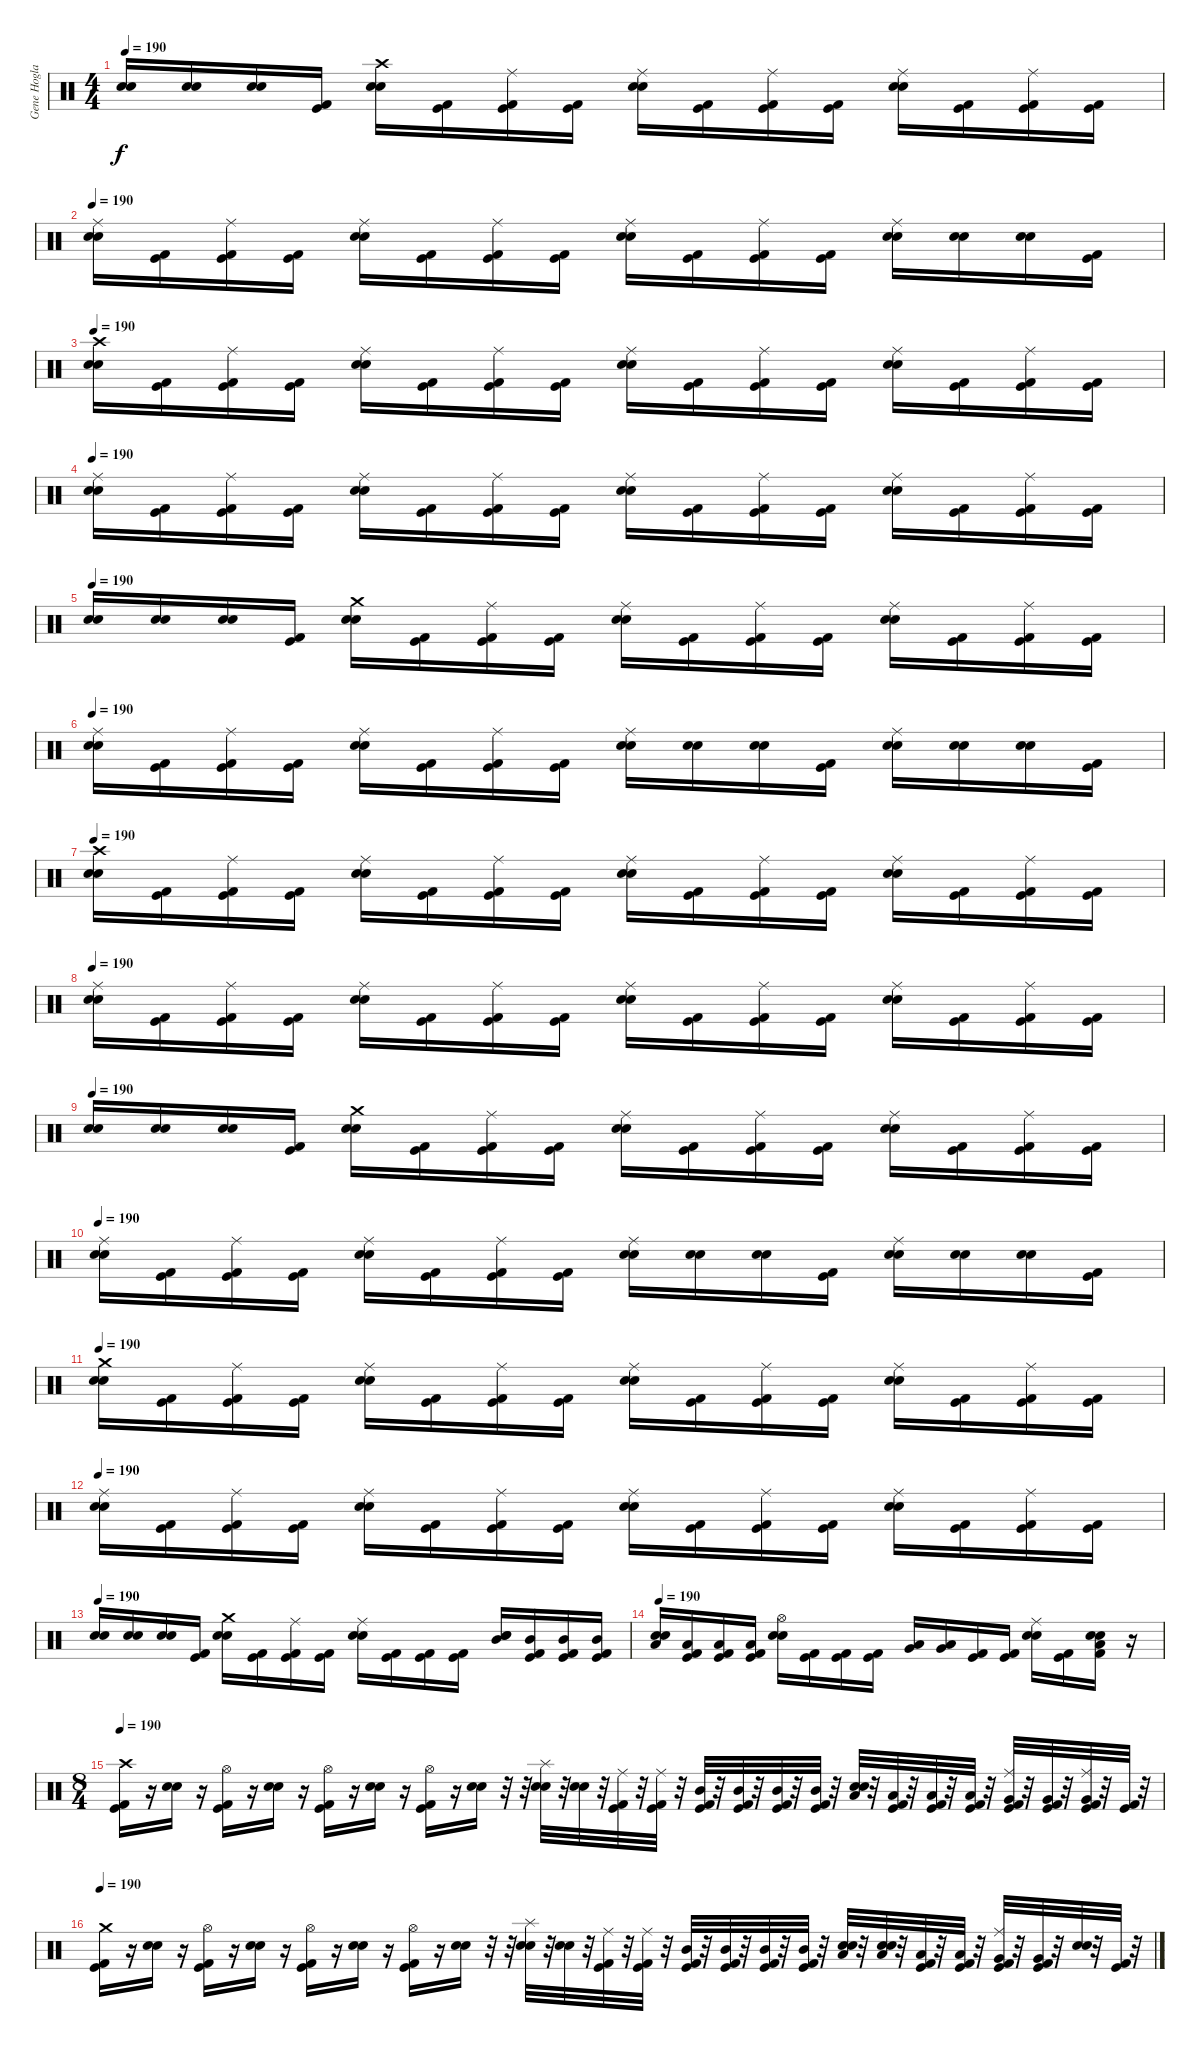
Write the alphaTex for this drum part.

\track ("Gene Hoglan" "Gene Hogla") {instrument percussion}
\staff {score}
\articulation defaults
\ts (4 4)
\tempo 190
\clef neutral
\ks c
("Electric Snare (hit)" "Snare (hit) 2").16{dy f} ("Electric Snare (hit)" "Snare (hit) 2").16 ("Electric Snare (hit)" "Snare (hit) 2").16 ("Kick (hit) 2" "Kick (hit)").16 ("Crash high (hit)" "Snare (hit) 2" "Electric Snare (hit)").16 ("Kick (hit) 2" "Kick (hit)").16 ("Ride (middle)" "Kick (hit) 2" "Kick (hit)").16 ("Kick (hit) 2" "Kick (hit)").16 ("Ride (middle)" "Snare (hit) 2" "Electric Snare (hit)").16 ("Kick (hit) 2" "Kick (hit)").16 ("Ride (middle)" "Kick (hit) 2" "Kick (hit)").16 ("Kick (hit) 2" "Kick (hit)").16 ("Ride (middle)" "Snare (hit) 2" "Electric Snare (hit)").16 ("Kick (hit) 2" "Kick (hit)").16 ("Ride (middle)" "Kick (hit) 2" "Kick (hit)").16 ("Kick (hit) 2" "Kick (hit)").16 |
\tempo 190
("Ride (middle)" "Snare (hit) 2" "Electric Snare (hit)").16 ("Kick (hit) 2" "Kick (hit)").16 ("Ride (middle)" "Kick (hit) 2" "Kick (hit)").16 ("Kick (hit) 2" "Kick (hit)").16 ("Ride (middle)" "Snare (hit) 2" "Electric Snare (hit)").16 ("Kick (hit) 2" "Kick (hit)").16 ("Ride (middle)" "Kick (hit) 2" "Kick (hit)").16 ("Kick (hit) 2" "Kick (hit)").16 ("Ride (middle)" "Snare (hit) 2" "Electric Snare (hit)").16 ("Kick (hit) 2" "Kick (hit)").16 ("Ride (middle)" "Kick (hit) 2" "Kick (hit)").16 ("Kick (hit) 2" "Kick (hit)").16 ("Ride (middle)" "Snare (hit) 2" "Electric Snare (hit)").16 ("Snare (hit) 2" "Electric Snare (hit)").16 ("Snare (hit) 2" "Electric Snare (hit)").16 ("Kick (hit) 2" "Kick (hit)").16 |
\tempo 190
("Crash high (hit)" "Snare (hit) 2" "Electric Snare (hit)").16 ("Kick (hit) 2" "Kick (hit)").16 ("Ride (middle)" "Kick (hit) 2" "Kick (hit)").16 ("Kick (hit) 2" "Kick (hit)").16 ("Ride (middle)" "Snare (hit) 2" "Electric Snare (hit)").16 ("Kick (hit) 2" "Kick (hit)").16 ("Ride (middle)" "Kick (hit) 2" "Kick (hit)").16 ("Kick (hit) 2" "Kick (hit)").16 ("Ride (middle)" "Snare (hit) 2" "Electric Snare (hit)").16 ("Kick (hit) 2" "Kick (hit)").16 ("Ride (middle)" "Kick (hit) 2" "Kick (hit)").16 ("Kick (hit) 2" "Kick (hit)").16 ("Ride (middle)" "Snare (hit) 2" "Electric Snare (hit)").16 ("Kick (hit) 2" "Kick (hit)").16 ("Ride (middle)" "Kick (hit) 2" "Kick (hit)").16 ("Kick (hit) 2" "Kick (hit)").16 |
\tempo 190
("Ride (middle)" "Snare (hit) 2" "Electric Snare (hit)").16 ("Kick (hit) 2" "Kick (hit)").16 ("Ride (middle)" "Kick (hit) 2" "Kick (hit)").16 ("Kick (hit) 2" "Kick (hit)").16 ("Ride (middle)" "Snare (hit) 2" "Electric Snare (hit)").16 ("Kick (hit) 2" "Kick (hit)").16 ("Ride (middle)" "Kick (hit) 2" "Kick (hit)").16 ("Kick (hit) 2" "Kick (hit)").16 ("Ride (middle)" "Snare (hit) 2" "Electric Snare (hit)").16 ("Kick (hit) 2" "Kick (hit)").16 ("Ride (middle)" "Kick (hit) 2" "Kick (hit)").16 ("Kick (hit) 2" "Kick (hit)").16 ("Ride (middle)" "Snare (hit) 2" "Electric Snare (hit)").16 ("Kick (hit) 2" "Kick (hit)").16 ("Ride (middle)" "Kick (hit) 2" "Kick (hit)").16 ("Kick (hit) 2" "Kick (hit)").16 |
\tempo 190
("Electric Snare (hit)" "Snare (hit) 2").16 ("Electric Snare (hit)" "Snare (hit) 2").16 ("Electric Snare (hit)" "Snare (hit) 2").16 ("Kick (hit) 2" "Kick (hit)").16 ("Crash medium (hit)" "Snare (hit) 2" "Electric Snare (hit)").16 ("Kick (hit) 2" "Kick (hit)").16 ("Ride (middle)" "Kick (hit) 2" "Kick (hit)").16 ("Kick (hit) 2" "Kick (hit)").16 ("Ride (middle)" "Snare (hit) 2" "Electric Snare (hit)").16 ("Kick (hit) 2" "Kick (hit)").16 ("Ride (middle)" "Kick (hit) 2" "Kick (hit)").16 ("Kick (hit) 2" "Kick (hit)").16 ("Ride (middle)" "Snare (hit) 2" "Electric Snare (hit)").16 ("Kick (hit) 2" "Kick (hit)").16 ("Ride (middle)" "Kick (hit) 2" "Kick (hit)").16 ("Kick (hit) 2" "Kick (hit)").16 |
\tempo 190
("Ride (middle)" "Snare (hit) 2" "Electric Snare (hit)").16 ("Kick (hit) 2" "Kick (hit)").16 ("Ride (middle)" "Kick (hit) 2" "Kick (hit)").16 ("Kick (hit) 2" "Kick (hit)").16 ("Ride (middle)" "Snare (hit) 2" "Electric Snare (hit)").16 ("Kick (hit) 2" "Kick (hit)").16 ("Ride (middle)" "Kick (hit) 2" "Kick (hit)").16 ("Kick (hit) 2" "Kick (hit)").16 ("Ride (middle)" "Snare (hit) 2" "Electric Snare (hit)").16 ("Snare (hit) 2" "Electric Snare (hit)").16 ("Snare (hit) 2" "Electric Snare (hit)").16 ("Kick (hit) 2" "Kick (hit)").16 ("Ride (middle)" "Snare (hit) 2" "Electric Snare (hit)").16 ("Snare (hit) 2" "Electric Snare (hit)").16 ("Snare (hit) 2" "Electric Snare (hit)").16 ("Kick (hit) 2" "Kick (hit)").16 |
\tempo 190
("Crash high (hit)" "Snare (hit) 2" "Electric Snare (hit)").16 ("Kick (hit) 2" "Kick (hit)").16 ("Ride (middle)" "Kick (hit) 2" "Kick (hit)").16 ("Kick (hit) 2" "Kick (hit)").16 ("Ride (middle)" "Snare (hit) 2" "Electric Snare (hit)").16 ("Kick (hit) 2" "Kick (hit)").16 ("Ride (middle)" "Kick (hit) 2" "Kick (hit)").16 ("Kick (hit) 2" "Kick (hit)").16 ("Ride (middle)" "Snare (hit) 2" "Electric Snare (hit)").16 ("Kick (hit) 2" "Kick (hit)").16 ("Ride (middle)" "Kick (hit) 2" "Kick (hit)").16 ("Kick (hit) 2" "Kick (hit)").16 ("Ride (middle)" "Snare (hit) 2" "Electric Snare (hit)").16 ("Kick (hit) 2" "Kick (hit)").16 ("Ride (middle)" "Kick (hit) 2" "Kick (hit)").16 ("Kick (hit) 2" "Kick (hit)").16 |
\tempo 190
("Ride (middle)" "Snare (hit) 2" "Electric Snare (hit)").16 ("Kick (hit) 2" "Kick (hit)").16 ("Ride (middle)" "Kick (hit) 2" "Kick (hit)").16 ("Kick (hit) 2" "Kick (hit)").16 ("Ride (middle)" "Snare (hit) 2" "Electric Snare (hit)").16 ("Kick (hit) 2" "Kick (hit)").16 ("Ride (middle)" "Kick (hit) 2" "Kick (hit)").16 ("Kick (hit) 2" "Kick (hit)").16 ("Ride (middle)" "Snare (hit) 2" "Electric Snare (hit)").16 ("Kick (hit) 2" "Kick (hit)").16 ("Ride (middle)" "Kick (hit) 2" "Kick (hit)").16 ("Kick (hit) 2" "Kick (hit)").16 ("Ride (middle)" "Snare (hit) 2" "Electric Snare (hit)").16 ("Kick (hit) 2" "Kick (hit)").16 ("Ride (middle)" "Kick (hit) 2" "Kick (hit)").16 ("Kick (hit) 2" "Kick (hit)").16 |
\tempo 190
("Electric Snare (hit)" "Snare (hit) 2").16 ("Electric Snare (hit)" "Snare (hit) 2").16 ("Electric Snare (hit)" "Snare (hit) 2").16 ("Kick (hit) 2" "Kick (hit)").16 ("Crash medium (hit)" "Snare (hit) 2" "Electric Snare (hit)").16 ("Kick (hit) 2" "Kick (hit)").16 ("Ride (middle)" "Kick (hit) 2" "Kick (hit)").16 ("Kick (hit) 2" "Kick (hit)").16 ("Ride (middle)" "Snare (hit) 2" "Electric Snare (hit)").16 ("Kick (hit) 2" "Kick (hit)").16 ("Ride (middle)" "Kick (hit) 2" "Kick (hit)").16 ("Kick (hit) 2" "Kick (hit)").16 ("Ride (middle)" "Snare (hit) 2" "Electric Snare (hit)").16 ("Kick (hit) 2" "Kick (hit)").16 ("Ride (middle)" "Kick (hit) 2" "Kick (hit)").16 ("Kick (hit) 2" "Kick (hit)").16 |
\tempo 190
("Ride (middle)" "Snare (hit) 2" "Electric Snare (hit)").16 ("Kick (hit) 2" "Kick (hit)").16 ("Ride (middle)" "Kick (hit) 2" "Kick (hit)").16 ("Kick (hit) 2" "Kick (hit)").16 ("Ride (middle)" "Snare (hit) 2" "Electric Snare (hit)").16 ("Kick (hit) 2" "Kick (hit)").16 ("Ride (middle)" "Kick (hit) 2" "Kick (hit)").16 ("Kick (hit) 2" "Kick (hit)").16 ("Ride (middle)" "Snare (hit) 2" "Electric Snare (hit)").16 ("Snare (hit) 2" "Electric Snare (hit)").16 ("Snare (hit) 2" "Electric Snare (hit)").16 ("Kick (hit) 2" "Kick (hit)").16 ("Ride (middle)" "Snare (hit) 2" "Electric Snare (hit)").16 ("Snare (hit) 2" "Electric Snare (hit)").16 ("Snare (hit) 2" "Electric Snare (hit)").16 ("Kick (hit) 2" "Kick (hit)").16 |
\tempo 190
("Crash medium (hit)" "Snare (hit) 2" "Electric Snare (hit)").16 ("Kick (hit) 2" "Kick (hit)").16 ("Ride (middle)" "Kick (hit) 2" "Kick (hit)").16 ("Kick (hit) 2" "Kick (hit)").16 ("Ride (middle)" "Snare (hit) 2" "Electric Snare (hit)").16 ("Kick (hit) 2" "Kick (hit)").16 ("Ride (middle)" "Kick (hit) 2" "Kick (hit)").16 ("Kick (hit) 2" "Kick (hit)").16 ("Ride (middle)" "Snare (hit) 2" "Electric Snare (hit)").16 ("Kick (hit) 2" "Kick (hit)").16 ("Ride (middle)" "Kick (hit) 2" "Kick (hit)").16 ("Kick (hit) 2" "Kick (hit)").16 ("Ride (middle)" "Snare (hit) 2" "Electric Snare (hit)").16 ("Kick (hit) 2" "Kick (hit)").16 ("Ride (middle)" "Kick (hit) 2" "Kick (hit)").16 ("Kick (hit) 2" "Kick (hit)").16 |
\tempo 190
("Ride (middle)" "Snare (hit) 2" "Electric Snare (hit)").16 ("Kick (hit) 2" "Kick (hit)").16 ("Ride (middle)" "Kick (hit) 2" "Kick (hit)").16 ("Kick (hit) 2" "Kick (hit)").16 ("Ride (middle)" "Snare (hit) 2" "Electric Snare (hit)").16 ("Kick (hit) 2" "Kick (hit)").16 ("Ride (middle)" "Kick (hit) 2" "Kick (hit)").16 ("Kick (hit) 2" "Kick (hit)").16 ("Ride (middle)" "Snare (hit) 2" "Electric Snare (hit)").16 ("Kick (hit) 2" "Kick (hit)").16 ("Ride (middle)" "Kick (hit) 2" "Kick (hit)").16 ("Kick (hit) 2" "Kick (hit)").16 ("Ride (middle)" "Snare (hit) 2" "Electric Snare (hit)").16 ("Kick (hit) 2" "Kick (hit)").16 ("Ride (middle)" "Kick (hit) 2" "Kick (hit)").16 ("Kick (hit) 2" "Kick (hit)").16 |
\tempo 190
("Electric Snare (hit)" "Snare (hit) 2").16 ("Electric Snare (hit)" "Snare (hit) 2").16 ("Electric Snare (hit)" "Snare (hit) 2").16 ("Kick (hit) 2" "Kick (hit)").16 ("Crash medium (hit)" "Snare (hit) 2" "Electric Snare (hit)").16 ("Kick (hit) 2" "Kick (hit)").16 ("Ride (middle)" "Kick (hit) 2" "Kick (hit)").16 ("Kick (hit) 2" "Kick (hit)").16 ("Ride (middle)" "Snare (hit) 2" "Electric Snare (hit)").16 ("Kick (hit) 2" "Kick (hit)").16 ("Kick (hit) 2" "Kick (hit)").16 ("Kick (hit) 2" "Kick (hit)").16 ("Mid Tom (hit)" "Snare (hit) 2" "Electric Snare (hit)").16 ("Mid Tom (hit)" "Kick (hit) 2" "Kick (hit)").16 ("Mid Tom (hit)" "Kick (hit) 2" "Kick (hit)").16 ("Mid Tom (hit)" "Kick (hit) 2" "Kick (hit)").16 |
\tempo 190
("Low Tom (hit)" "Snare (hit) 2" "Electric Snare (hit)").16 ("Low Tom (hit)" "Kick (hit) 2" "Kick (hit)").16 ("Low Tom (hit)" "Kick (hit) 2" "Kick (hit)").16 ("Low Tom (hit)" "Kick (hit) 2" "Kick (hit)").16 ("Hi-Hat (open)" "Snare (hit) 2" "Electric Snare (hit)").16 ("Kick (hit) 2" "Kick (hit)").16 ("Kick (hit) 2" "Kick (hit)").16 ("Kick (hit) 2" "Kick (hit)").16 ("Low Tom (hit)" "Very Low Tom (hit)").16 ("Low Tom (hit)" "Very Low Tom (hit)").16 ("Kick (hit) 2" "Kick (hit)").16 ("Kick (hit) 2" "Kick (hit)").16 ("Ride (middle)" "Snare (hit) 2" "Electric Snare (hit)").16 ("Kick (hit) 2" "Kick (hit)").16 ("Low Floor Tom (hit)" "Snare (hit) 2" "Electric Snare (hit)" "Kick (hit) 2").16 r.16 |
\ts (8 4)
\tempo 190
("Crash high (hit)" "Kick (hit) 2" "Kick (hit)").16 r.16 ("Snare (hit) 2" "Electric Snare (hit)").16 r.16 ("Hi-Hat (open)" "Kick (hit) 2" "Kick (hit)").16 r.16 ("Snare (hit) 2" "Electric Snare (hit)").16 r.16 ("Hi-Hat (open)" "Kick (hit) 2" "Kick (hit)").16 r.16 ("Snare (hit) 2" "Electric Snare (hit)").16 r.16 ("Hi-Hat (open)" "Kick (hit) 2" "Kick (hit)").16 r.16 ("Snare (hit) 2" "Electric Snare (hit)").16 r.32 r.32 ("Splash (hit)" "Snare (hit) 2" "Electric Snare (hit)").32 r.32 ("Snare (hit) 2" "Electric Snare (hit)").32 r.32 ("Ride (middle)" "Kick (hit) 2" "Kick (hit)").32 r.32 ("Ride (middle)" "Kick (hit) 2" "Kick (hit)").32 r.32 ("Mid Tom (hit)" "Kick (hit) 2" "Kick (hit)").32 r.32 ("Mid Tom (hit)" "Kick (hit) 2" "Kick (hit)").32 r.32 ("Mid Tom (hit)" "Kick (hit) 2" "Kick (hit)").32 r.32 ("Mid Tom (hit)" "Kick (hit) 2" "Kick (hit)").32 r.32 ("Low Tom (hit)" "Snare (hit) 2" "Electric Snare (hit)").32 r.32 ("Low Tom (hit)" "Kick (hit) 2" "Kick (hit)").32 r.32 ("Low Tom (hit)" "Kick (hit) 2" "Kick (hit)").32 r.32 ("Low Tom (hit)" "Kick (hit) 2" "Kick (hit)").32 r.32 ("Ride (middle)" "Very Low Tom (hit)" "Kick (hit) 2" "Kick (hit)").32 r.32 ("Very Low Tom (hit)" "Kick (hit) 2" "Kick (hit)").32 r.32 ("Ride (middle)" "Very Low Tom (hit)" "Kick (hit) 2" "Kick (hit)").32 r.32 ("Kick (hit) 2" "Kick (hit)").32 r.32 |
\tempo 190
("Crash medium (hit)" "Kick (hit) 2" "Kick (hit)").16 r.16 ("Snare (hit) 2" "Electric Snare (hit)").16 r.16 ("Hi-Hat (open)" "Kick (hit) 2" "Kick (hit)").16 r.16 ("Snare (hit) 2" "Electric Snare (hit)").16 r.16 ("Hi-Hat (open)" "Kick (hit) 2" "Kick (hit)").16 r.16 ("Snare (hit) 2" "Electric Snare (hit)").16 r.16 ("Hi-Hat (open)" "Kick (hit) 2" "Kick (hit)").16 r.16 ("Snare (hit) 2" "Electric Snare (hit)").16 r.32 r.32 ("Splash (hit)" "Snare (hit) 2" "Electric Snare (hit)").32 r.32 ("Snare (hit) 2" "Electric Snare (hit)").32 r.32 ("Ride (middle)" "Kick (hit) 2" "Kick (hit)").32 r.32 ("Ride (middle)" "Kick (hit) 2" "Kick (hit)").32 r.32 ("Mid Tom (hit)" "Kick (hit) 2" "Kick (hit)").32 r.32 ("Mid Tom (hit)" "Kick (hit) 2" "Kick (hit)").32 r.32 ("Mid Tom (hit)" "Kick (hit) 2" "Kick (hit)").32 r.32 ("Mid Tom (hit)" "Kick (hit) 2" "Kick (hit)").32 r.32 ("Low Tom (hit)" "Snare (hit) 2" "Electric Snare (hit)").32 r.32 ("Low Tom (hit)" "Snare (hit) 2" "Electric Snare (hit)").32 r.32 ("Low Tom (hit)" "Kick (hit) 2" "Kick (hit)").32 r.32 ("Low Tom (hit)" "Kick (hit) 2" "Kick (hit)").32 r.32 ("Ride (middle)" "Very Low Tom (hit)" "Kick (hit) 2" "Kick (hit)").32 r.32 ("Very Low Tom (hit)" "Kick (hit) 2" "Kick (hit)").32 r.32 ("Snare (hit) 2" "Electric Snare (hit)").32 r.32 ("Kick (hit) 2" "Kick (hit)").32 r.32
